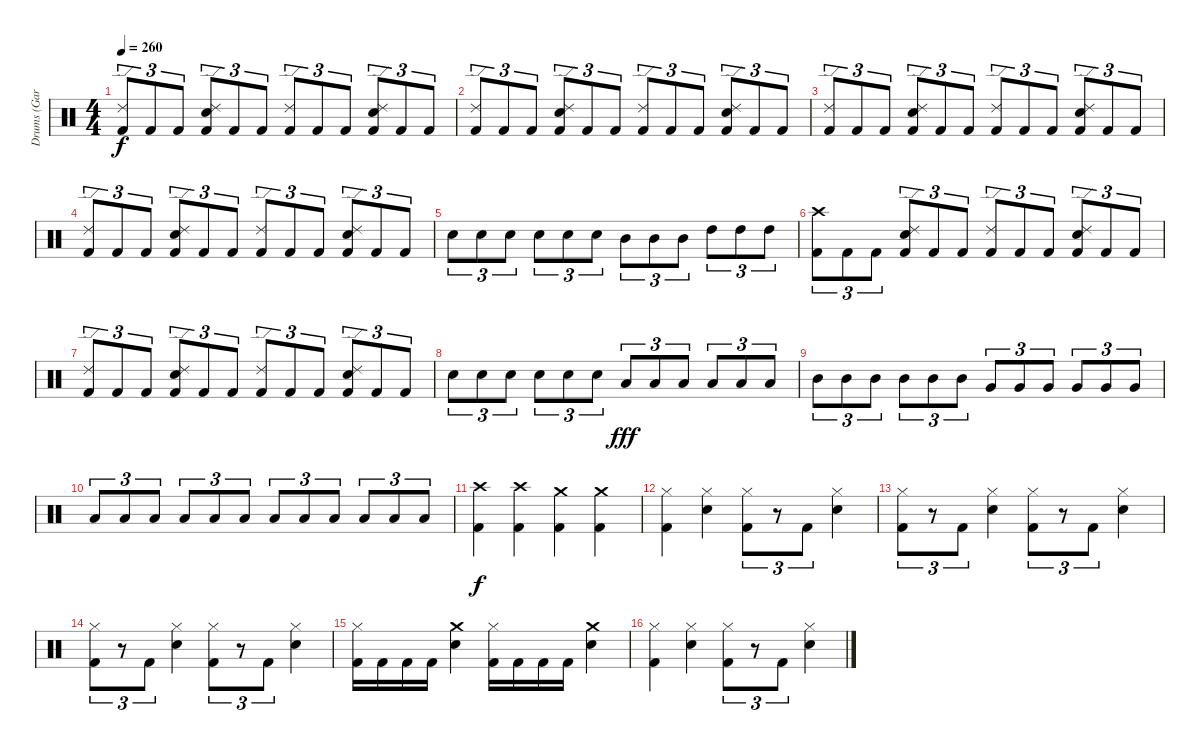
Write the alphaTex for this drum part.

\track ("Drums (Gar Samuelson)" "Drums (Gar") {instrument percussion}
\staff {score}
\articulation defaults
\ts (4 4)
\tempo 260
\clef neutral
\ks c
("Ride (edge) 2" "Kick (hit) 2").8{tu (3 2) dy f} "Kick (hit) 2".8{tu (3 2)} "Kick (hit) 2".8{tu (3 2)} ("Ride (edge) 2" "Snare (hit) 2" "Kick (hit) 2").8{tu (3 2)} "Kick (hit) 2".8{tu (3 2)} "Kick (hit) 2".8{tu (3 2)} ("Ride (edge) 2" "Kick (hit) 2").8{tu (3 2)} "Kick (hit) 2".8{tu (3 2)} "Kick (hit) 2".8{tu (3 2)} ("Ride (edge) 2" "Snare (hit) 2" "Kick (hit) 2").8{tu (3 2)} "Kick (hit) 2".8{tu (3 2)} "Kick (hit) 2".8{tu (3 2)} |
("Ride (edge) 2" "Kick (hit) 2").8{tu (3 2)} "Kick (hit) 2".8{tu (3 2)} "Kick (hit) 2".8{tu (3 2)} ("Ride (edge) 2" "Snare (hit) 2" "Kick (hit) 2").8{tu (3 2)} "Kick (hit) 2".8{tu (3 2)} "Kick (hit) 2".8{tu (3 2)} ("Ride (edge) 2" "Kick (hit) 2").8{tu (3 2)} "Kick (hit) 2".8{tu (3 2)} "Kick (hit) 2".8{tu (3 2)} ("Ride (edge) 2" "Snare (hit) 2" "Kick (hit) 2").8{tu (3 2)} "Kick (hit) 2".8{tu (3 2)} "Kick (hit) 2".8{tu (3 2)} |
("Ride (edge) 2" "Kick (hit) 2").8{tu (3 2)} "Kick (hit) 2".8{tu (3 2)} "Kick (hit) 2".8{tu (3 2)} ("Ride (edge) 2" "Snare (hit) 2" "Kick (hit) 2").8{tu (3 2)} "Kick (hit) 2".8{tu (3 2)} "Kick (hit) 2".8{tu (3 2)} ("Ride (edge) 2" "Kick (hit) 2").8{tu (3 2)} "Kick (hit) 2".8{tu (3 2)} "Kick (hit) 2".8{tu (3 2)} ("Ride (edge) 2" "Snare (hit) 2" "Kick (hit) 2").8{tu (3 2)} "Kick (hit) 2".8{tu (3 2)} "Kick (hit) 2".8{tu (3 2)} |
("Ride (edge) 2" "Kick (hit) 2").8{tu (3 2)} "Kick (hit) 2".8{tu (3 2)} "Kick (hit) 2".8{tu (3 2)} ("Ride (edge) 2" "Snare (hit) 2" "Kick (hit) 2").8{tu (3 2)} "Kick (hit) 2".8{tu (3 2)} "Kick (hit) 2".8{tu (3 2)} ("Ride (edge) 2" "Kick (hit) 2").8{tu (3 2)} "Kick (hit) 2".8{tu (3 2)} "Kick (hit) 2".8{tu (3 2)} ("Ride (edge) 2" "Snare (hit) 2" "Kick (hit) 2").8{tu (3 2)} "Kick (hit) 2".8{tu (3 2)} "Kick (hit) 2".8{tu (3 2)} |
"Snare (hit) 2".8{tu (3 2)} "Snare (hit) 2".8{tu (3 2)} "Snare (hit) 2".8{tu (3 2)} "Snare (hit) 2".8{tu (3 2)} "Snare (hit) 2".8{tu (3 2)} "Snare (hit) 2".8{tu (3 2)} "Mid Tom (hit)".8{tu (3 2)} "Mid Tom (hit)".8{tu (3 2)} "Mid Tom (hit)".8{tu (3 2)} "High Tom (hit)".8{tu (3 2)} "High Tom (hit)".8{tu (3 2)} "High Tom (hit)".8{tu (3 2)} |
("Crash high (hit)" "Kick (hit) 2").8{tu (3 2)} "Kick (hit) 2".8{tu (3 2)} "Kick (hit) 2".8{tu (3 2)} ("Ride (edge) 2" "Snare (hit) 2" "Kick (hit) 2").8{tu (3 2)} "Kick (hit) 2".8{tu (3 2)} "Kick (hit) 2".8{tu (3 2)} ("Ride (edge) 2" "Kick (hit) 2").8{tu (3 2)} "Kick (hit) 2".8{tu (3 2)} "Kick (hit) 2".8{tu (3 2)} ("Ride (edge) 2" "Snare (hit) 2" "Kick (hit) 2").8{tu (3 2)} "Kick (hit) 2".8{tu (3 2)} "Kick (hit) 2".8{tu (3 2)} |
("Ride (edge) 2" "Kick (hit) 2").8{tu (3 2)} "Kick (hit) 2".8{tu (3 2)} "Kick (hit) 2".8{tu (3 2)} ("Ride (edge) 2" "Snare (hit) 2" "Kick (hit) 2").8{tu (3 2)} "Kick (hit) 2".8{tu (3 2)} "Kick (hit) 2".8{tu (3 2)} ("Ride (edge) 2" "Kick (hit) 2").8{tu (3 2)} "Kick (hit) 2".8{tu (3 2)} "Kick (hit) 2".8{tu (3 2)} ("Ride (edge) 2" "Snare (hit) 2" "Kick (hit) 2").8{tu (3 2)} "Kick (hit) 2".8{tu (3 2)} "Kick (hit) 2".8{tu (3 2)} |
"Snare (hit) 2".8{tu (3 2)} "Snare (hit) 2".8{tu (3 2)} "Snare (hit) 2".8{tu (3 2)} "Snare (hit) 2".8{tu (3 2)} "Snare (hit) 2".8{tu (3 2)} "Snare (hit) 2".8{tu (3 2)} "Low Tom (hit)".8{tu (3 2) dy fff} "Low Tom (hit)".8{tu (3 2)} "Low Tom (hit)".8{tu (3 2)} "Low Tom (hit)".8{tu (3 2)} "Low Tom (hit)".8{tu (3 2)} "Low Tom (hit)".8{tu (3 2)} |
"Mid Tom (hit)".8{tu (3 2)} "Mid Tom (hit)".8{tu (3 2)} "Mid Tom (hit)".8{tu (3 2)} "Mid Tom (hit)".8{tu (3 2)} "Mid Tom (hit)".8{tu (3 2)} "Mid Tom (hit)".8{tu (3 2)} "Very Low Tom (hit)".8{tu (3 2)} "Very Low Tom (hit)".8{tu (3 2)} "Very Low Tom (hit)".8{tu (3 2)} "Very Low Tom (hit)".8{tu (3 2)} "Very Low Tom (hit)".8{tu (3 2)} "Very Low Tom (hit)".8{tu (3 2)} |
"Low Tom (hit)".8{tu (3 2)} "Low Tom (hit)".8{tu (3 2)} "Low Tom (hit)".8{tu (3 2)} "Low Tom (hit)".8{tu (3 2)} "Low Tom (hit)".8{tu (3 2)} "Low Tom (hit)".8{tu (3 2)} "Low Floor Tom (hit)".8{tu (3 2)} "Low Floor Tom (hit)".8{tu (3 2)} "Low Floor Tom (hit)".8{tu (3 2)} "Low Floor Tom (hit)".8{tu (3 2)} "Low Floor Tom (hit)".8{tu (3 2)} "Low Floor Tom (hit)".8{tu (3 2)} |
("Crash high (hit)" "Kick (hit) 2").4{dy f} ("Crash high (hit)" "Kick (hit) 2").4 ("Crash medium (hit)" "Kick (hit) 2").4 ("Crash medium (hit)" "Kick (hit) 2").4 |
("Hi-Hat (closed)" "Kick (hit) 2").4 ("Hi-Hat (closed)" "Snare (hit) 2").4 ("Hi-Hat (closed)" "Kick (hit) 2").8{tu (3 2)} r.8{tu (3 2)} "Kick (hit) 2".8{tu (3 2)} ("Hi-Hat (closed)" "Snare (hit) 2").4 |
("Hi-Hat (closed)" "Kick (hit) 2").8{tu (3 2)} r.8{tu (3 2)} "Kick (hit) 2".8{tu (3 2)} ("Hi-Hat (closed)" "Snare (hit) 2").4 ("Hi-Hat (closed)" "Kick (hit) 2").8{tu (3 2)} r.8{tu (3 2)} "Kick (hit) 2".8{tu (3 2)} ("Hi-Hat (closed)" "Snare (hit) 2").4 |
("Hi-Hat (closed)" "Kick (hit) 2").8{tu (3 2)} r.8{tu (3 2)} "Kick (hit) 2".8{tu (3 2)} ("Hi-Hat (closed)" "Snare (hit) 2").4 ("Hi-Hat (closed)" "Kick (hit) 2").8{tu (3 2)} r.8{tu (3 2)} "Kick (hit) 2".8{tu (3 2)} ("Hi-Hat (closed)" "Snare (hit) 2").4 |
("Hi-Hat (closed)" "Kick (hit) 2").16 "Kick (hit) 2".16 "Kick (hit) 2".16 "Kick (hit) 2".16 ("Crash medium (hit)" "Snare (hit) 2").4 ("Hi-Hat (closed)" "Kick (hit) 2").16 "Kick (hit) 2".16 "Kick (hit) 2".16 "Kick (hit) 2".16 ("Crash medium (hit)" "Snare (hit) 2").4 |
("Hi-Hat (closed)" "Kick (hit) 2").4 ("Hi-Hat (closed)" "Snare (hit) 2").4 ("Hi-Hat (closed)" "Kick (hit) 2").8{tu (3 2)} r.8{tu (3 2)} "Kick (hit) 2".8{tu (3 2)} ("Hi-Hat (closed)" "Snare (hit) 2").4
